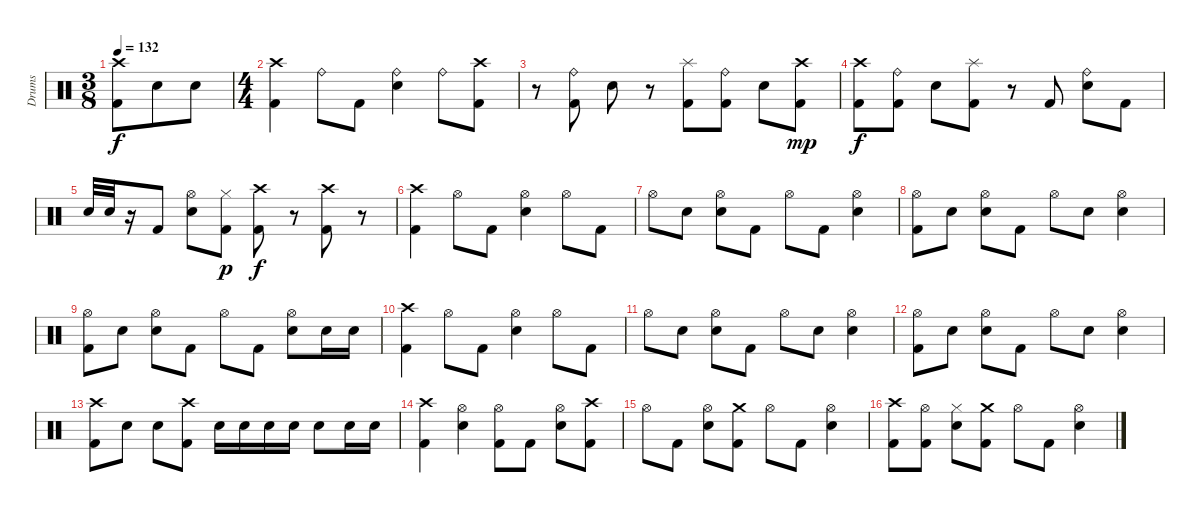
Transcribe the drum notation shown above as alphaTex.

\track ("Drums" "Drums") {instrument percussion}
\staff {score}
\articulation defaults
\ts (3 8)
\tempo 132
\clef neutral
\ks c
("Crash high (hit)" "Kick (hit) 2").8{dy f} "Electric Snare (hit)".8 "Electric Snare (hit)".8 |
\ts (4 4)
("Crash high (hit)" "Kick (hit) 2").4 "Ride (bell)".8 "Kick (hit) 2".8 ("Ride (bell)" "Electric Snare (hit)").4 "Ride (bell)".8 ("Kick (hit) 2" "Crash high (hit)").8 |
r.8 ("Kick (hit) 2" "Ride (bell)").8 "Electric Snare (hit)".8 r.8 ("Kick (hit) 2" "Splash (hit)").8 ("Kick (hit) 2" "Ride (bell)").8 "Electric Snare (hit)".8 ("Kick (hit) 2" "Crash high (hit)").8{dy mp} |
("Kick (hit) 2" "Crash high (hit)").8{dy f} ("Kick (hit) 2" "Ride (bell)").8 "Electric Snare (hit)".8 ("Kick (hit) 2" "Splash (hit)").8 r.8 "Kick (hit) 2".8 ("Electric Snare (hit)" "Ride (bell)").8 "Kick (hit) 2".8 |
"Electric Snare (hit)".32 "Electric Snare (hit)".32 r.16 "Kick (hit) 2".8 ("Electric Snare (hit)" "Hi-Hat (open)").8 ("Kick (hit) 2" "Hi-Hat (closed)").8{dy p} ("Kick (hit) 2" "Crash high (hit)").8{dy f} r.8 ("Crash high (hit)" "Kick (hit) 2").8 r.8 |
("Crash high (hit)" "Kick (hit) 2").4 "Hi-Hat (open)".8 "Kick (hit) 2".8 ("Electric Snare (hit)" "Hi-Hat (open)").4 "Hi-Hat (open)".8 "Kick (hit) 2".8 |
"Hi-Hat (open)".8 "Electric Snare (hit)".8 ("Electric Snare (hit)" "Hi-Hat (open)").8 "Kick (hit) 2".8 "Hi-Hat (open)".8 "Kick (hit) 2".8 ("Electric Snare (hit)" "Hi-Hat (open)").4 |
("Kick (hit) 2" "Hi-Hat (open)").8 "Electric Snare (hit)".8 ("Hi-Hat (open)" "Electric Snare (hit)").8 "Kick (hit) 2".8 "Hi-Hat (open)".8 "Electric Snare (hit)".8 ("Hi-Hat (open)" "Electric Snare (hit)").4 |
("Hi-Hat (open)" "Kick (hit) 2").8 "Electric Snare (hit)".8 ("Hi-Hat (open)" "Electric Snare (hit)").8 "Kick (hit) 2".8 "Hi-Hat (open)".8 "Kick (hit) 2".8 ("Hi-Hat (open)" "Electric Snare (hit)").8 "Electric Snare (hit)".16 "Electric Snare (hit)".16 |
("Kick (hit) 2" "Crash high (hit)").4 "Hi-Hat (open)".8 "Kick (hit) 2".8 ("Electric Snare (hit)" "Hi-Hat (open)").4 "Hi-Hat (open)".8 "Kick (hit) 2".8 |
"Hi-Hat (open)".8 "Electric Snare (hit)".8 ("Electric Snare (hit)" "Hi-Hat (open)").8 "Kick (hit) 2".8 "Hi-Hat (open)".8 "Electric Snare (hit)".8 ("Electric Snare (hit)" "Hi-Hat (open)").4 |
("Hi-Hat (open)" "Kick (hit) 2").8 "Electric Snare (hit)".8 ("Hi-Hat (open)" "Electric Snare (hit)").8 "Kick (hit) 2".8 "Hi-Hat (open)".8 "Electric Snare (hit)".8 ("Hi-Hat (open)" "Electric Snare (hit)").4 |
("Crash high (hit)" "Kick (hit) 2").8 "Electric Snare (hit)".8 "Electric Snare (hit)".8 ("Crash high (hit)" "Kick (hit) 2").8 "Electric Snare (hit)".16 "Electric Snare (hit)".16 "Electric Snare (hit)".16 "Electric Snare (hit)".16 "Electric Snare (hit)".8 "Electric Snare (hit)".16 "Electric Snare (hit)".16 |
("Crash high (hit)" "Kick (hit) 2").4 ("Hi-Hat (open)" "Electric Snare (hit)").4 ("Hi-Hat (open)" "Kick (hit) 2").8 "Kick (hit) 2".8 ("Electric Snare (hit)" "Hi-Hat (open)").8 ("Kick (hit) 2" "Crash high (hit)").8 |
"Hi-Hat (open)".8 "Kick (hit) 2".8 ("Hi-Hat (open)" "Electric Snare (hit)").8 ("Kick (hit) 2" "Crash medium (hit)").8 "Hi-Hat (open)".8 "Kick (hit) 2".8 ("Hi-Hat (open)" "Electric Snare (hit)").4 |
("Kick (hit) 2" "Crash high (hit)").8 ("Kick (hit) 2" "Hi-Hat (open)").8 ("Electric Snare (hit)" "Hi-Hat (closed)").8 ("Kick (hit) 2" "Crash medium (hit)").8 "Hi-Hat (open)".8 "Kick (hit) 2".8 ("Electric Snare (hit)" "Hi-Hat (open)").4
